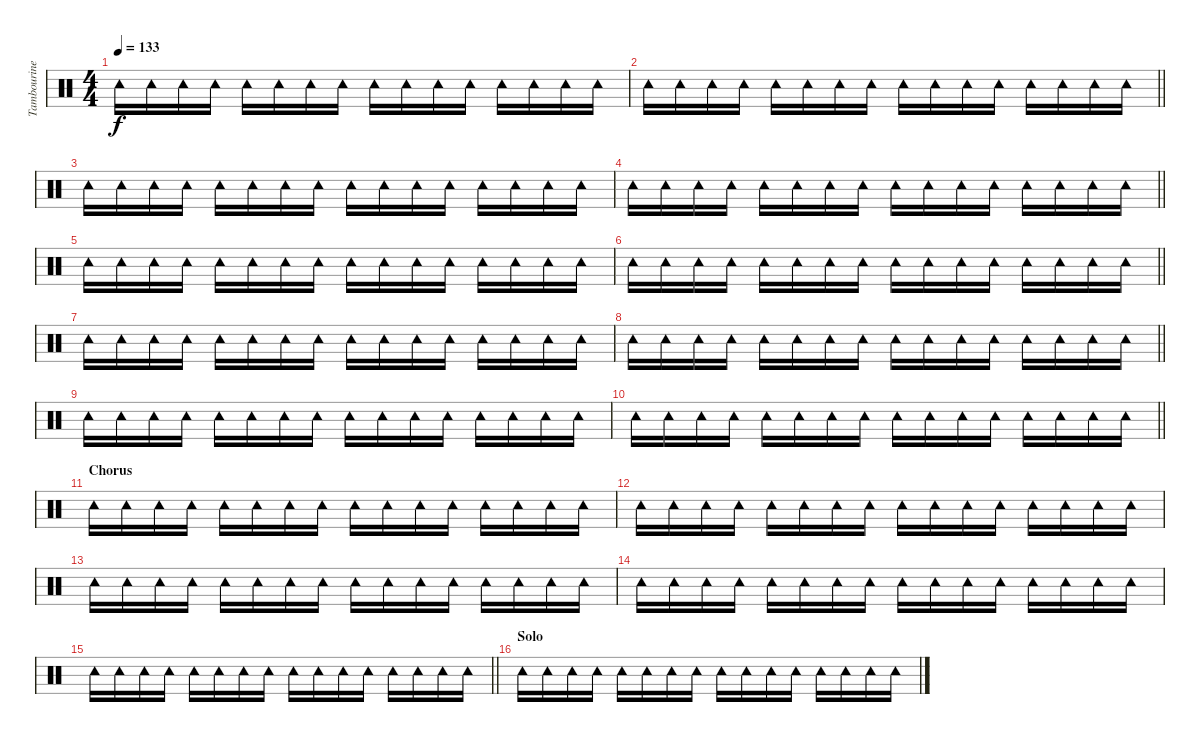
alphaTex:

\track ("Tambourine" "Tambourine") {instrument percussion}
\staff {score}
\articulation defaults
\ts (4 4)
\tempo 133
\clef neutral
\ks c "Tambourine (hit)".16{dy f} "Tambourine (hit)".16 "Tambourine (hit)".16 "Tambourine (hit)".16 "Tambourine (hit)".16 "Tambourine (hit)".16 "Tambourine (hit)".16 "Tambourine (hit)".16 "Tambourine (hit)".16 "Tambourine (hit)".16 "Tambourine (hit)".16 "Tambourine (hit)".16 "Tambourine (hit)".16 "Tambourine (hit)".16 "Tambourine (hit)".16 "Tambourine (hit)".16
|
\barLineRight lightlight "Tambourine (hit)".16 "Tambourine (hit)".16 "Tambourine (hit)".16 "Tambourine (hit)".16 "Tambourine (hit)".16 "Tambourine (hit)".16 "Tambourine (hit)".16 "Tambourine (hit)".16 "Tambourine (hit)".16 "Tambourine (hit)".16 "Tambourine (hit)".16 "Tambourine (hit)".16 "Tambourine (hit)".16 "Tambourine (hit)".16 "Tambourine (hit)".16 "Tambourine (hit)".16
|
"Tambourine (hit)".16 "Tambourine (hit)".16 "Tambourine (hit)".16 "Tambourine (hit)".16 "Tambourine (hit)".16 "Tambourine (hit)".16 "Tambourine (hit)".16 "Tambourine (hit)".16 "Tambourine (hit)".16 "Tambourine (hit)".16 "Tambourine (hit)".16 "Tambourine (hit)".16 "Tambourine (hit)".16 "Tambourine (hit)".16 "Tambourine (hit)".16 "Tambourine (hit)".16 |
\barLineRight lightlight "Tambourine (hit)".16 "Tambourine (hit)".16 "Tambourine (hit)".16 "Tambourine (hit)".16 "Tambourine (hit)".16 "Tambourine (hit)".16 "Tambourine (hit)".16 "Tambourine (hit)".16 "Tambourine (hit)".16 "Tambourine (hit)".16 "Tambourine (hit)".16 "Tambourine (hit)".16 "Tambourine (hit)".16 "Tambourine (hit)".16 "Tambourine (hit)".16 "Tambourine (hit)".16
|
"Tambourine (hit)".16 "Tambourine (hit)".16 "Tambourine (hit)".16 "Tambourine (hit)".16 "Tambourine (hit)".16 "Tambourine (hit)".16 "Tambourine (hit)".16 "Tambourine (hit)".16 "Tambourine (hit)".16 "Tambourine (hit)".16 "Tambourine (hit)".16 "Tambourine (hit)".16 "Tambourine (hit)".16 "Tambourine (hit)".16 "Tambourine (hit)".16 "Tambourine (hit)".16 |
\barLineRight lightlight "Tambourine (hit)".16 "Tambourine (hit)".16 "Tambourine (hit)".16 "Tambourine (hit)".16 "Tambourine (hit)".16 "Tambourine (hit)".16 "Tambourine (hit)".16 "Tambourine (hit)".16 "Tambourine (hit)".16 "Tambourine (hit)".16 "Tambourine (hit)".16 "Tambourine (hit)".16 "Tambourine (hit)".16 "Tambourine (hit)".16 "Tambourine (hit)".16 "Tambourine (hit)".16
|
"Tambourine (hit)".16 "Tambourine (hit)".16 "Tambourine (hit)".16 "Tambourine (hit)".16 "Tambourine (hit)".16 "Tambourine (hit)".16 "Tambourine (hit)".16 "Tambourine (hit)".16 "Tambourine (hit)".16 "Tambourine (hit)".16 "Tambourine (hit)".16 "Tambourine (hit)".16 "Tambourine (hit)".16 "Tambourine (hit)".16 "Tambourine (hit)".16 "Tambourine (hit)".16 |
\barLineRight lightlight "Tambourine (hit)".16 "Tambourine (hit)".16 "Tambourine (hit)".16 "Tambourine (hit)".16 "Tambourine (hit)".16 "Tambourine (hit)".16 "Tambourine (hit)".16 "Tambourine (hit)".16 "Tambourine (hit)".16 "Tambourine (hit)".16 "Tambourine (hit)".16 "Tambourine (hit)".16 "Tambourine (hit)".16 "Tambourine (hit)".16 "Tambourine (hit)".16 "Tambourine (hit)".16
|
"Tambourine (hit)".16 "Tambourine (hit)".16 "Tambourine (hit)".16 "Tambourine (hit)".16 "Tambourine (hit)".16 "Tambourine (hit)".16 "Tambourine (hit)".16 "Tambourine (hit)".16 "Tambourine (hit)".16 "Tambourine (hit)".16 "Tambourine (hit)".16 "Tambourine (hit)".16 "Tambourine (hit)".16 "Tambourine (hit)".16 "Tambourine (hit)".16 "Tambourine (hit)".16 |
\barLineRight lightlight "Tambourine (hit)".16 "Tambourine (hit)".16 "Tambourine (hit)".16 "Tambourine (hit)".16 "Tambourine (hit)".16 "Tambourine (hit)".16 "Tambourine (hit)".16 "Tambourine (hit)".16 "Tambourine (hit)".16 "Tambourine (hit)".16 "Tambourine (hit)".16 "Tambourine (hit)".16 "Tambourine (hit)".16 "Tambourine (hit)".16 "Tambourine (hit)".16 "Tambourine (hit)".16
|
\section ("" "Chorus")
"Tambourine (hit)".16 "Tambourine (hit)".16 "Tambourine (hit)".16 "Tambourine (hit)".16 "Tambourine (hit)".16 "Tambourine (hit)".16 "Tambourine (hit)".16 "Tambourine (hit)".16 "Tambourine (hit)".16 "Tambourine (hit)".16 "Tambourine (hit)".16 "Tambourine (hit)".16 "Tambourine (hit)".16 "Tambourine (hit)".16 "Tambourine (hit)".16 "Tambourine (hit)".16 |
"Tambourine (hit)".16 "Tambourine (hit)".16 "Tambourine (hit)".16 "Tambourine (hit)".16 "Tambourine (hit)".16 "Tambourine (hit)".16 "Tambourine (hit)".16 "Tambourine (hit)".16 "Tambourine (hit)".16 "Tambourine (hit)".16 "Tambourine (hit)".16 "Tambourine (hit)".16 "Tambourine (hit)".16 "Tambourine (hit)".16 "Tambourine (hit)".16 "Tambourine (hit)".16 |
"Tambourine (hit)".16 "Tambourine (hit)".16 "Tambourine (hit)".16 "Tambourine (hit)".16 "Tambourine (hit)".16 "Tambourine (hit)".16 "Tambourine (hit)".16 "Tambourine (hit)".16 "Tambourine (hit)".16 "Tambourine (hit)".16 "Tambourine (hit)".16 "Tambourine (hit)".16 "Tambourine (hit)".16 "Tambourine (hit)".16 "Tambourine (hit)".16 "Tambourine (hit)".16 |
"Tambourine (hit)".16 "Tambourine (hit)".16 "Tambourine (hit)".16 "Tambourine (hit)".16 "Tambourine (hit)".16 "Tambourine (hit)".16 "Tambourine (hit)".16 "Tambourine (hit)".16 "Tambourine (hit)".16 "Tambourine (hit)".16 "Tambourine (hit)".16 "Tambourine (hit)".16 "Tambourine (hit)".16 "Tambourine (hit)".16 "Tambourine (hit)".16 "Tambourine (hit)".16 |
\barLineRight lightlight "Tambourine (hit)".16 "Tambourine (hit)".16 "Tambourine (hit)".16 "Tambourine (hit)".16 "Tambourine (hit)".16 "Tambourine (hit)".16 "Tambourine (hit)".16 "Tambourine (hit)".16 "Tambourine (hit)".16 "Tambourine (hit)".16 "Tambourine (hit)".16 "Tambourine (hit)".16 "Tambourine (hit)".16 "Tambourine (hit)".16 "Tambourine (hit)".16 "Tambourine (hit)".16
|
\section ("" "Solo")
"Tambourine (hit)".16 "Tambourine (hit)".16 "Tambourine (hit)".16 "Tambourine (hit)".16 "Tambourine (hit)".16 "Tambourine (hit)".16 "Tambourine (hit)".16 "Tambourine (hit)".16 "Tambourine (hit)".16 "Tambourine (hit)".16 "Tambourine (hit)".16 "Tambourine (hit)".16 "Tambourine (hit)".16 "Tambourine (hit)".16 "Tambourine (hit)".16 "Tambourine (hit)".16
